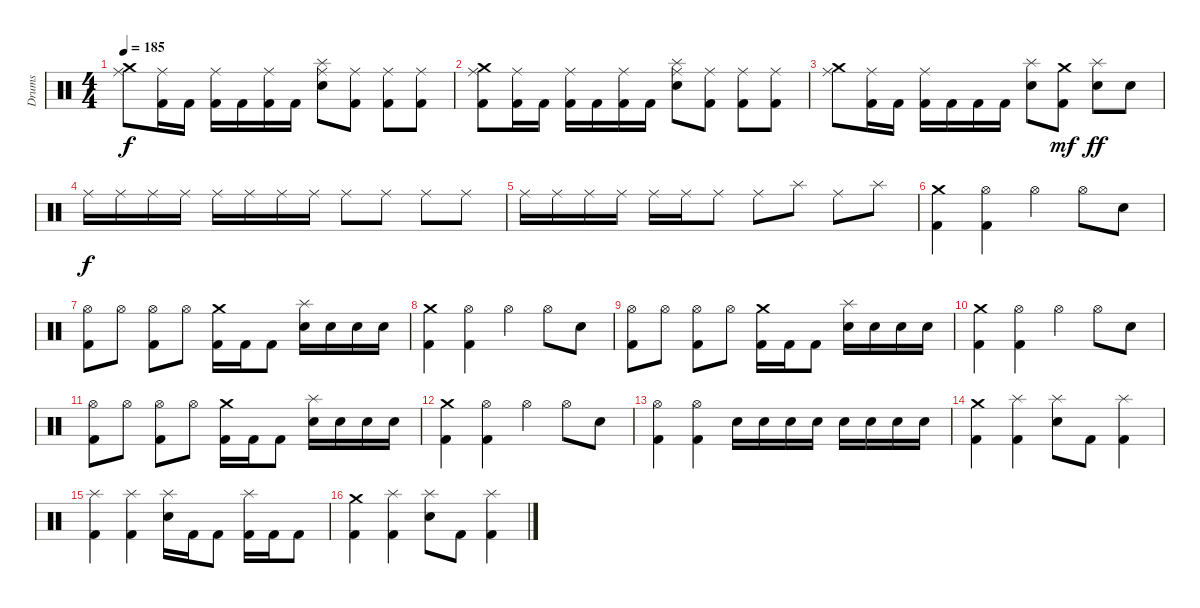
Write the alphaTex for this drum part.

\track ("Drums" "Drums") {instrument percussion}
\staff {score}
\articulation defaults
\ts (4 4)
\tempo 185
\clef neutral
\ks c
("Ride (middle)" "Crash medium (hit)").8{dy f} ("Ride (middle)" "Kick (hit) 2").16 "Kick (hit) 2".16 ("Ride (middle)" "Kick (hit) 2").16 "Kick (hit) 2".16 ("Ride (middle)" "Kick (hit) 2").16 "Kick (hit) 2".16 ("Ride (middle)" "Splash (hit)" "Snare (hit) 2").8 ("Ride (middle)" "Kick (hit) 2").8 ("Ride (middle)" "Kick (hit) 2").8 ("Ride (middle)" "Kick (hit) 2").8 |
("Ride (middle)" "Crash medium (hit)" "Kick (hit) 2").8 ("Ride (middle)" "Kick (hit) 2").16 "Kick (hit) 2".16 ("Ride (middle)" "Kick (hit) 2").16 "Kick (hit) 2".16 ("Ride (middle)" "Kick (hit) 2").16 "Kick (hit) 2".16 ("Ride (middle)" "Splash (hit)" "Snare (hit) 2").8 ("Ride (middle)" "Kick (hit) 2").8 ("Ride (middle)" "Kick (hit) 2").8 ("Ride (middle)" "Kick (hit) 2").8 |
("Ride (middle)" "Crash medium (hit)").8 ("Ride (middle)" "Kick (hit) 2").16 "Kick (hit) 2".16 ("Ride (middle)" "Kick (hit) 2").16 "Kick (hit) 2".16 "Kick (hit) 2".16 "Kick (hit) 2".16 ("Splash (hit)" "Snare (hit) 2").8 ("Crash medium (hit)" "Kick (hit) 2").8{dy mf} ("Splash (hit)" "Snare (hit) 2").8{dy ff} "Snare (hit) 2".8 |
"Ride (middle)".16{dy f} "Ride (middle)".16 "Ride (middle)".16 "Ride (middle)".16 "Ride (middle)".16 "Ride (middle)".16 "Ride (middle)".16 "Ride (middle)".16 "Ride (middle)".8 "Ride (middle)".8 "Ride (middle)".8 "Ride (middle)".8 |
"Ride (middle)".16 "Ride (middle)".16 "Ride (middle)".16 "Ride (middle)".16 "Ride (middle)".16 "Ride (middle)".16 "Ride (middle)".8 "Ride (middle)".8 "Splash (hit)".8 "Ride (middle)".8 "Splash (hit)".8 |
("Crash medium (hit)" "Kick (hit) 2").4 ("Hi-Hat (open)" "Kick (hit) 2").4 "Hi-Hat (open)".4 "Hi-Hat (open)".8 "Snare (hit) 2".8 |
("Hi-Hat (open)" "Kick (hit) 2").8 "Hi-Hat (open)".8 ("Hi-Hat (open)" "Kick (hit) 2").8 "Hi-Hat (open)".8 ("Crash medium (hit)" "Kick (hit) 2").16 "Kick (hit) 2".16 "Kick (hit) 2".8 ("Splash (hit)" "Snare (hit) 2").16 "Snare (hit) 2".16 "Snare (hit) 2".16 "Snare (hit) 2".16 |
("Crash medium (hit)" "Kick (hit) 2").4 ("Hi-Hat (open)" "Kick (hit) 2").4 "Hi-Hat (open)".4 "Hi-Hat (open)".8 "Snare (hit) 2".8 |
("Hi-Hat (open)" "Kick (hit) 2").8 "Hi-Hat (open)".8 ("Hi-Hat (open)" "Kick (hit) 2").8 "Hi-Hat (open)".8 ("Crash medium (hit)" "Kick (hit) 2").16 "Kick (hit) 2".16 "Kick (hit) 2".8 ("Splash (hit)" "Snare (hit) 2").16 "Snare (hit) 2".16 "Snare (hit) 2".16 "Snare (hit) 2".16 |
("Crash medium (hit)" "Kick (hit) 2").4 ("Hi-Hat (open)" "Kick (hit) 2").4 "Hi-Hat (open)".4 "Hi-Hat (open)".8 "Snare (hit) 2".8 |
("Hi-Hat (open)" "Kick (hit) 2").8 "Hi-Hat (open)".8 ("Hi-Hat (open)" "Kick (hit) 2").8 "Hi-Hat (open)".8 ("Crash medium (hit)" "Kick (hit) 2").16 "Kick (hit) 2".16 "Kick (hit) 2".8 ("Splash (hit)" "Snare (hit) 2").16 "Snare (hit) 2".16 "Snare (hit) 2".16 "Snare (hit) 2".16 |
("Crash medium (hit)" "Kick (hit) 2").4 ("Hi-Hat (open)" "Kick (hit) 2").4 "Hi-Hat (open)".4 "Hi-Hat (open)".8 "Snare (hit) 2".8 |
("Hi-Hat (open)" "Kick (hit) 2").4 ("Hi-Hat (open)" "Kick (hit) 2").4 "Snare (hit) 2".16 "Snare (hit) 2".16 "Snare (hit) 2".16 "Snare (hit) 2".16 "Snare (hit) 2".16 "Snare (hit) 2".16 "Snare (hit) 2".16 "Snare (hit) 2".16 |
("Crash medium (hit)" "Kick (hit) 2").4 ("Splash (hit)" "Kick (hit) 2").4 ("Splash (hit)" "Snare (hit) 2").8 "Kick (hit) 2".8 ("Splash (hit)" "Kick (hit) 2").4 |
("Splash (hit)" "Kick (hit) 2").4 ("Splash (hit)" "Kick (hit) 2").4 ("Splash (hit)" "Snare (hit) 2").16 "Kick (hit) 2".16 "Kick (hit) 2".8 ("Splash (hit)" "Kick (hit) 2").16 "Kick (hit) 2".16 "Kick (hit) 2".8 |
("Crash medium (hit)" "Kick (hit) 2").4 ("Splash (hit)" "Kick (hit) 2").4 ("Splash (hit)" "Snare (hit) 2").8 "Kick (hit) 2".8 ("Splash (hit)" "Kick (hit) 2").4
